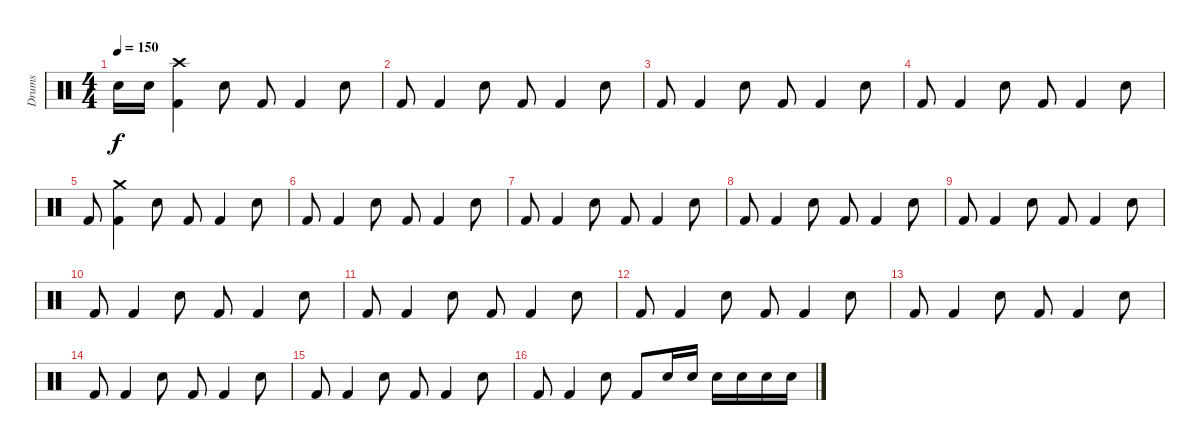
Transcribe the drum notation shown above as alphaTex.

\track ("Drums" "Drums") {instrument percussion}
\staff {score}
\articulation defaults
\ts (4 4)
\tempo 150
\clef neutral
\ks c "Snare (hit) 2".16{dy f} "Snare (hit) 2".16
("Crash high (hit)" "Kick (hit) 2").4 "Snare (hit) 2".8 "Kick (hit) 2".8 "Kick (hit) 2".4 "Snare (hit) 2".8 |
"Kick (hit) 2".8 "Kick (hit) 2".4 "Snare (hit) 2".8 "Kick (hit) 2".8 "Kick (hit) 2".4 "Snare (hit) 2".8 |
"Kick (hit) 2".8 "Kick (hit) 2".4 "Snare (hit) 2".8 "Kick (hit) 2".8 "Kick (hit) 2".4 "Snare (hit) 2".8 |
"Kick (hit) 2".8 "Kick (hit) 2".4 "Snare (hit) 2".8 "Kick (hit) 2".8 "Kick (hit) 2".4 "Snare (hit) 2".8 |
"Kick (hit) 2".8 ("Crash medium (hit)" "Kick (hit) 2").4 "Snare (hit) 2".8 "Kick (hit) 2".8 "Kick (hit) 2".4 "Snare (hit) 2".8 |
"Kick (hit) 2".8 "Kick (hit) 2".4 "Snare (hit) 2".8 "Kick (hit) 2".8 "Kick (hit) 2".4 "Snare (hit) 2".8 |
"Kick (hit) 2".8 "Kick (hit) 2".4 "Snare (hit) 2".8 "Kick (hit) 2".8 "Kick (hit) 2".4 "Snare (hit) 2".8 |
"Kick (hit) 2".8 "Kick (hit) 2".4 "Snare (hit) 2".8 "Kick (hit) 2".8 "Kick (hit) 2".4 "Snare (hit) 2".8 |
"Kick (hit) 2".8 "Kick (hit) 2".4 "Snare (hit) 2".8 "Kick (hit) 2".8 "Kick (hit) 2".4 "Snare (hit) 2".8 |
"Kick (hit) 2".8 "Kick (hit) 2".4 "Snare (hit) 2".8 "Kick (hit) 2".8 "Kick (hit) 2".4 "Snare (hit) 2".8 |
"Kick (hit) 2".8 "Kick (hit) 2".4 "Snare (hit) 2".8 "Kick (hit) 2".8 "Kick (hit) 2".4 "Snare (hit) 2".8 |
"Kick (hit) 2".8 "Kick (hit) 2".4 "Snare (hit) 2".8 "Kick (hit) 2".8 "Kick (hit) 2".4 "Snare (hit) 2".8 |
"Kick (hit) 2".8 "Kick (hit) 2".4 "Snare (hit) 2".8 "Kick (hit) 2".8 "Kick (hit) 2".4 "Snare (hit) 2".8 |
"Kick (hit) 2".8 "Kick (hit) 2".4 "Snare (hit) 2".8 "Kick (hit) 2".8 "Kick (hit) 2".4 "Snare (hit) 2".8 |
"Kick (hit) 2".8 "Kick (hit) 2".4 "Snare (hit) 2".8 "Kick (hit) 2".8 "Kick (hit) 2".4 "Snare (hit) 2".8 |
"Kick (hit) 2".8 "Kick (hit) 2".4 "Snare (hit) 2".8 "Kick (hit) 2".8 "Snare (hit) 2".16 "Snare (hit) 2".16 "Snare (hit) 2".16 "Snare (hit) 2".16 "Snare (hit) 2".16 "Snare (hit) 2".16
